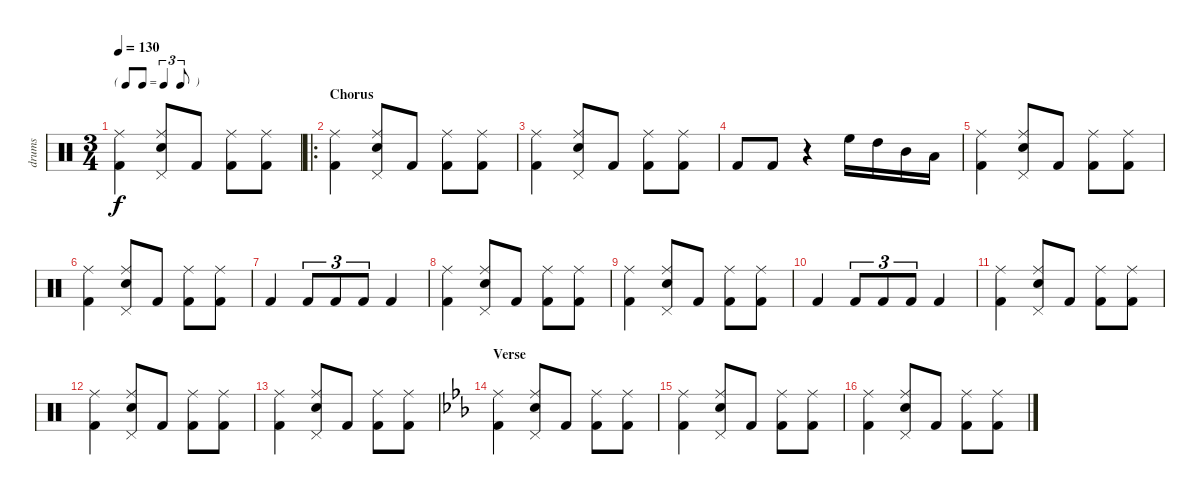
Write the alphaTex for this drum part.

\track ("drums" "drums") {instrument percussion}
\staff {score}
\articulation defaults
\ts (3 4)
\tf triplet8th
\tempo 130
\clef neutral
\ks c
("Ride (middle)" "Kick (hit) 2").4{dy f} ("Ride (middle)" "Snare (hit) 2" "Pedal Hi-Hat (hit)").8 "Kick (hit) 2".8 ("Ride (middle)" "Kick (hit) 2").8 ("Ride (middle)" "Kick (hit) 2").8 |
\ro
\section ("" "Chorus")
("Ride (middle)" "Kick (hit) 2").4 ("Ride (middle)" "Snare (hit) 2" "Pedal Hi-Hat (hit)").8 "Kick (hit) 2".8 ("Ride (middle)" "Kick (hit) 2").8 ("Ride (middle)" "Kick (hit) 2").8 |
("Ride (middle)" "Kick (hit) 2").4 ("Ride (middle)" "Snare (hit) 2" "Pedal Hi-Hat (hit)").8 "Kick (hit) 2".8 ("Ride (middle)" "Kick (hit) 2").8 ("Ride (middle)" "Kick (hit) 2").8 |
"Kick (hit) 2".8 "Kick (hit) 2".8 r.4 "High Floor Tom (hit)".16 "High Tom (hit)".16 "Mid Tom (hit)".16 "Low Tom (hit)".16 |
("Ride (middle)" "Kick (hit) 2").4 ("Ride (middle)" "Snare (hit) 2" "Pedal Hi-Hat (hit)").8 "Kick (hit) 2".8 ("Ride (middle)" "Kick (hit) 2").8 ("Ride (middle)" "Kick (hit) 2").8 |
("Ride (middle)" "Kick (hit) 2").4 ("Ride (middle)" "Snare (hit) 2" "Pedal Hi-Hat (hit)").8 "Kick (hit) 2".8 ("Ride (middle)" "Kick (hit) 2").8 ("Ride (middle)" "Kick (hit) 2").8 |
"Kick (hit) 2".4 "Kick (hit) 2".8{tu (3 2)} "Kick (hit) 2".8{tu (3 2)} "Kick (hit) 2".8{tu (3 2)} "Kick (hit) 2".4 |
("Ride (middle)" "Kick (hit) 2").4 ("Ride (middle)" "Snare (hit) 2" "Pedal Hi-Hat (hit)").8 "Kick (hit) 2".8 ("Ride (middle)" "Kick (hit) 2").8 ("Ride (middle)" "Kick (hit) 2").8 |
("Ride (middle)" "Kick (hit) 2").4 ("Ride (middle)" "Snare (hit) 2" "Pedal Hi-Hat (hit)").8 "Kick (hit) 2".8 ("Ride (middle)" "Kick (hit) 2").8 ("Ride (middle)" "Kick (hit) 2").8 |
"Kick (hit) 2".4 "Kick (hit) 2".8{tu (3 2)} "Kick (hit) 2".8{tu (3 2)} "Kick (hit) 2".8{tu (3 2)} "Kick (hit) 2".4 |
("Ride (middle)" "Kick (hit) 2").4 ("Ride (middle)" "Snare (hit) 2" "Pedal Hi-Hat (hit)").8 "Kick (hit) 2".8 ("Ride (middle)" "Kick (hit) 2").8 ("Ride (middle)" "Kick (hit) 2").8 |
("Ride (middle)" "Kick (hit) 2").4 ("Ride (middle)" "Snare (hit) 2" "Pedal Hi-Hat (hit)").8 "Kick (hit) 2".8 ("Ride (middle)" "Kick (hit) 2").8 ("Ride (middle)" "Kick (hit) 2").8 |
("Ride (middle)" "Kick (hit) 2").4 ("Ride (middle)" "Snare (hit) 2" "Pedal Hi-Hat (hit)").8 "Kick (hit) 2".8 ("Ride (middle)" "Kick (hit) 2").8 ("Ride (middle)" "Kick (hit) 2").8 |
\section ("" "Verse")
\ks cminor
("Ride (middle)" "Kick (hit) 2").4 ("Ride (middle)" "Snare (hit) 2" "Pedal Hi-Hat (hit)").8 "Kick (hit) 2".8 ("Ride (middle)" "Kick (hit) 2").8 ("Ride (middle)" "Kick (hit) 2").8 |
("Ride (middle)" "Kick (hit) 2").4 ("Ride (middle)" "Snare (hit) 2" "Pedal Hi-Hat (hit)").8 "Kick (hit) 2".8 ("Ride (middle)" "Kick (hit) 2").8 ("Ride (middle)" "Kick (hit) 2").8 |
("Ride (middle)" "Kick (hit) 2").4 ("Ride (middle)" "Snare (hit) 2" "Pedal Hi-Hat (hit)").8 "Kick (hit) 2".8 ("Ride (middle)" "Kick (hit) 2").8 ("Ride (middle)" "Kick (hit) 2").8
